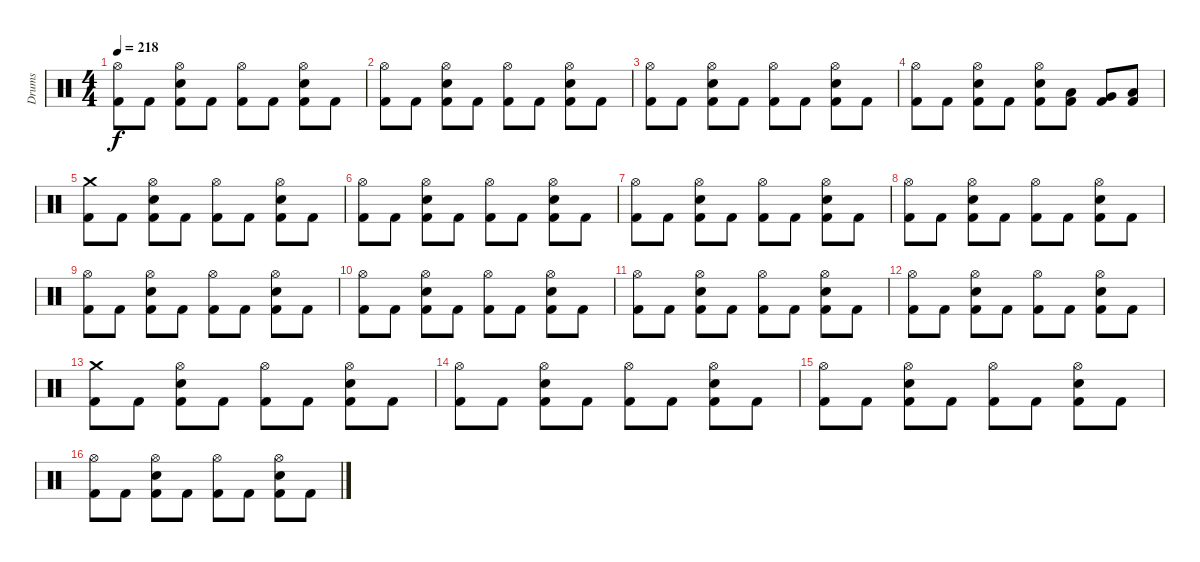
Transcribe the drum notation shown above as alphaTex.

\track ("Drums" "Drums") {instrument percussion}
\staff {score}
\articulation defaults
\ts (4 4)
\tempo 218
\clef neutral
\ks c
("Hi-Hat (open)" "Kick (hit) 2").8{dy f} "Kick (hit) 2".8 ("Hi-Hat (open)" "Snare (hit) 2" "Kick (hit) 2").8 "Kick (hit) 2".8 ("Hi-Hat (open)" "Kick (hit) 2").8 "Kick (hit) 2".8 ("Hi-Hat (open)" "Snare (hit) 2" "Kick (hit) 2").8 "Kick (hit) 2".8 |
("Hi-Hat (open)" "Kick (hit) 2").8 "Kick (hit) 2".8 ("Hi-Hat (open)" "Snare (hit) 2" "Kick (hit) 2").8 "Kick (hit) 2".8 ("Hi-Hat (open)" "Kick (hit) 2").8 "Kick (hit) 2".8 ("Hi-Hat (open)" "Snare (hit) 2" "Kick (hit) 2").8 "Kick (hit) 2".8 |
("Hi-Hat (open)" "Kick (hit) 2").8 "Kick (hit) 2".8 ("Hi-Hat (open)" "Snare (hit) 2" "Kick (hit) 2").8 "Kick (hit) 2".8 ("Hi-Hat (open)" "Kick (hit) 2").8 "Kick (hit) 2".8 ("Hi-Hat (open)" "Snare (hit) 2" "Kick (hit) 2").8 "Kick (hit) 2".8 |
("Hi-Hat (open)" "Kick (hit) 2").8 "Kick (hit) 2".8 ("Hi-Hat (open)" "Snare (hit) 2" "Kick (hit) 2").8 "Kick (hit) 2".8 ("Hi-Hat (open)" "Snare (hit) 2" "Kick (hit) 2").8 ("Low Tom (hit)" "Kick (hit) 2").8 ("Very Low Tom (hit)" "Kick (hit) 2").8 ("Low Floor Tom (hit)" "Kick (hit) 2").8 |
("Crash medium (hit)" "Kick (hit) 2").8 "Kick (hit) 2".8 ("Hi-Hat (open)" "Snare (hit) 2" "Kick (hit) 2").8 "Kick (hit) 2".8 ("Hi-Hat (open)" "Kick (hit) 2").8 "Kick (hit) 2".8 ("Hi-Hat (open)" "Snare (hit) 2" "Kick (hit) 2").8 "Kick (hit) 2".8 |
("Hi-Hat (open)" "Kick (hit) 2").8 "Kick (hit) 2".8 ("Hi-Hat (open)" "Snare (hit) 2" "Kick (hit) 2").8 "Kick (hit) 2".8 ("Hi-Hat (open)" "Kick (hit) 2").8 "Kick (hit) 2".8 ("Hi-Hat (open)" "Snare (hit) 2" "Kick (hit) 2").8 "Kick (hit) 2".8 |
("Hi-Hat (open)" "Kick (hit) 2").8 "Kick (hit) 2".8 ("Hi-Hat (open)" "Snare (hit) 2" "Kick (hit) 2").8 "Kick (hit) 2".8 ("Hi-Hat (open)" "Kick (hit) 2").8 "Kick (hit) 2".8 ("Hi-Hat (open)" "Snare (hit) 2" "Kick (hit) 2").8 "Kick (hit) 2".8 |
("Hi-Hat (open)" "Kick (hit) 2").8 "Kick (hit) 2".8 ("Hi-Hat (open)" "Snare (hit) 2" "Kick (hit) 2").8 "Kick (hit) 2".8 ("Hi-Hat (open)" "Kick (hit) 2").8 "Kick (hit) 2".8 ("Hi-Hat (open)" "Snare (hit) 2" "Kick (hit) 2").8 "Kick (hit) 2".8 |
("Hi-Hat (open)" "Kick (hit) 2").8 "Kick (hit) 2".8 ("Hi-Hat (open)" "Snare (hit) 2" "Kick (hit) 2").8 "Kick (hit) 2".8 ("Hi-Hat (open)" "Kick (hit) 2").8 "Kick (hit) 2".8 ("Hi-Hat (open)" "Snare (hit) 2" "Kick (hit) 2").8 "Kick (hit) 2".8 |
("Hi-Hat (open)" "Kick (hit) 2").8 "Kick (hit) 2".8 ("Hi-Hat (open)" "Snare (hit) 2" "Kick (hit) 2").8 "Kick (hit) 2".8 ("Hi-Hat (open)" "Kick (hit) 2").8 "Kick (hit) 2".8 ("Hi-Hat (open)" "Snare (hit) 2" "Kick (hit) 2").8 "Kick (hit) 2".8 |
("Hi-Hat (open)" "Kick (hit) 2").8 "Kick (hit) 2".8 ("Hi-Hat (open)" "Snare (hit) 2" "Kick (hit) 2").8 "Kick (hit) 2".8 ("Hi-Hat (open)" "Kick (hit) 2").8 "Kick (hit) 2".8 ("Hi-Hat (open)" "Snare (hit) 2" "Kick (hit) 2").8 "Kick (hit) 2".8 |
("Hi-Hat (open)" "Kick (hit) 2").8 "Kick (hit) 2".8 ("Hi-Hat (open)" "Snare (hit) 2" "Kick (hit) 2").8 "Kick (hit) 2".8 ("Hi-Hat (open)" "Kick (hit) 2").8 "Kick (hit) 2".8 ("Hi-Hat (open)" "Snare (hit) 2" "Kick (hit) 2").8 "Kick (hit) 2".8 |
("Crash medium (hit)" "Kick (hit) 2").8 "Kick (hit) 2".8 ("Hi-Hat (open)" "Snare (hit) 2" "Kick (hit) 2").8 "Kick (hit) 2".8 ("Hi-Hat (open)" "Kick (hit) 2").8 "Kick (hit) 2".8 ("Hi-Hat (open)" "Snare (hit) 2" "Kick (hit) 2").8 "Kick (hit) 2".8 |
("Hi-Hat (open)" "Kick (hit) 2").8 "Kick (hit) 2".8 ("Hi-Hat (open)" "Snare (hit) 2" "Kick (hit) 2").8 "Kick (hit) 2".8 ("Hi-Hat (open)" "Kick (hit) 2").8 "Kick (hit) 2".8 ("Hi-Hat (open)" "Snare (hit) 2" "Kick (hit) 2").8 "Kick (hit) 2".8 |
("Hi-Hat (open)" "Kick (hit) 2").8 "Kick (hit) 2".8 ("Hi-Hat (open)" "Snare (hit) 2" "Kick (hit) 2").8 "Kick (hit) 2".8 ("Hi-Hat (open)" "Kick (hit) 2").8 "Kick (hit) 2".8 ("Hi-Hat (open)" "Snare (hit) 2" "Kick (hit) 2").8 "Kick (hit) 2".8 |
("Hi-Hat (open)" "Kick (hit) 2").8 "Kick (hit) 2".8 ("Hi-Hat (open)" "Snare (hit) 2" "Kick (hit) 2").8 "Kick (hit) 2".8 ("Hi-Hat (open)" "Kick (hit) 2").8 "Kick (hit) 2".8 ("Hi-Hat (open)" "Snare (hit) 2" "Kick (hit) 2").8 "Kick (hit) 2".8
